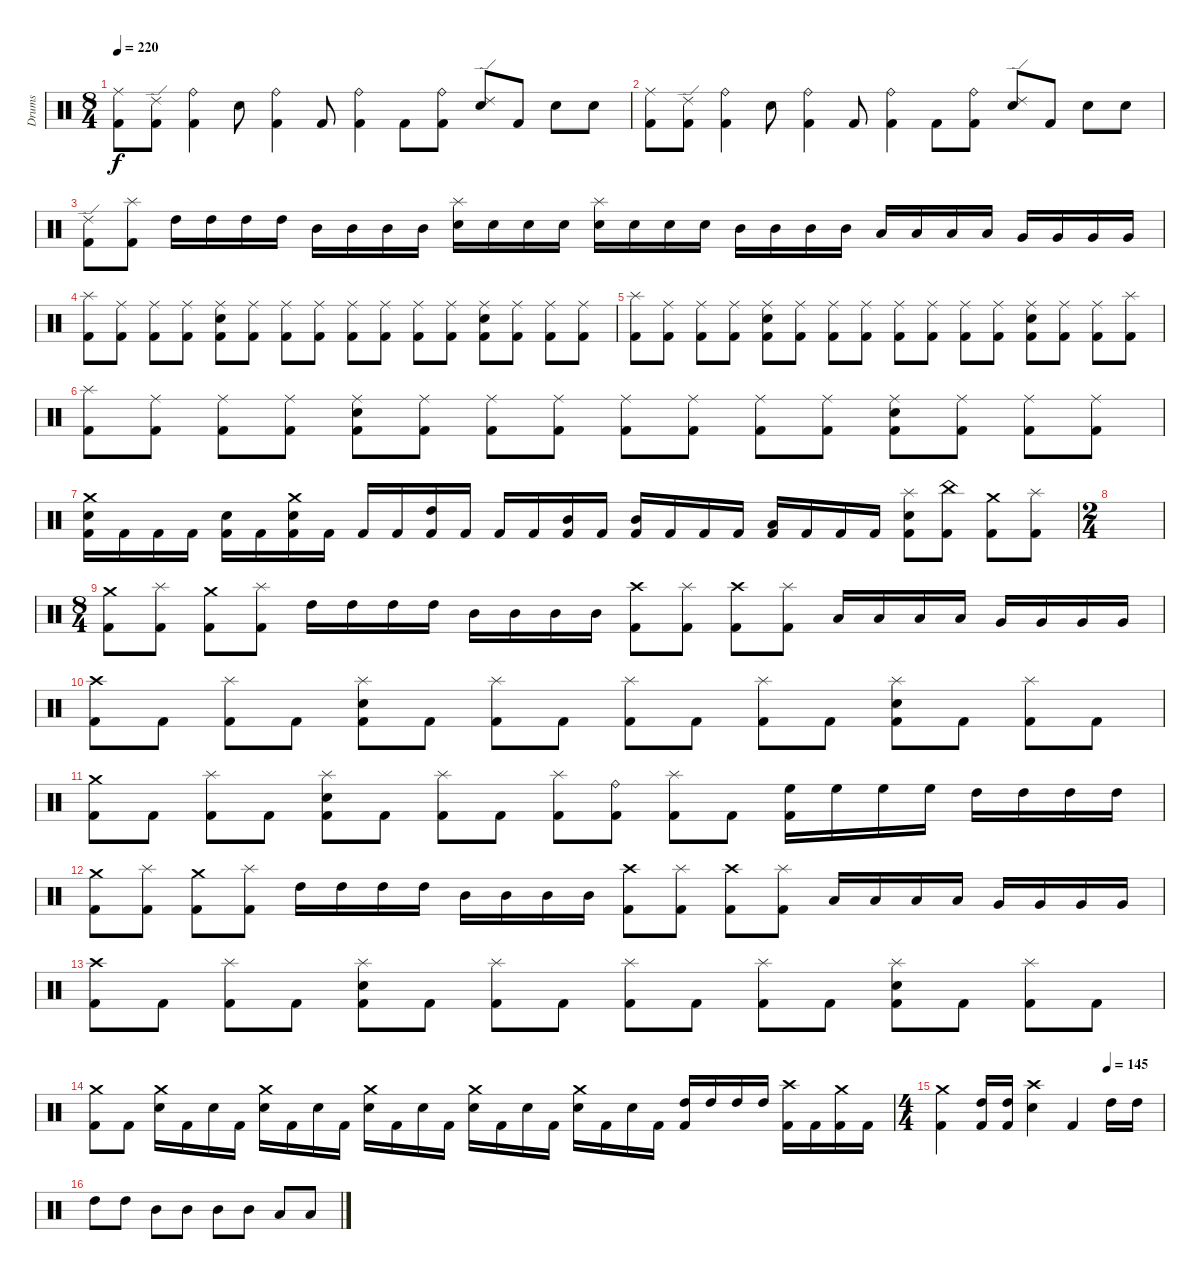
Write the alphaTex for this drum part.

\track ("Drums" "Drums") {instrument percussion}
\staff {score}
\articulation defaults
\ts (8 4)
\tempo 220
\clef neutral
\ks c
("Ride (middle)" "Kick (hit) 2").8{dy f} ("Ride (edge) 2" "Kick (hit) 2").8 ("Ride (bell)" "Kick (hit) 2").4 "Snare (hit) 2".8 ("Ride (bell)" "Kick (hit) 2").4 "Kick (hit) 2".8 ("Ride (bell)" "Kick (hit) 2").4 "Kick (hit) 2".8 ("Ride (bell)" "Kick (hit) 2").8 ("Ride (edge) 2" "Snare (hit) 2").8 "Kick (hit) 2".8 "Snare (hit) 2".8 "Snare (hit) 2".8 |
("Ride (middle)" "Kick (hit) 2").8 ("Ride (edge) 2" "Kick (hit) 2").8 ("Ride (bell)" "Kick (hit) 2").4 "Snare (hit) 2".8 ("Ride (bell)" "Kick (hit) 2").4 "Kick (hit) 2".8 ("Ride (bell)" "Kick (hit) 2").4 "Kick (hit) 2".8 ("Ride (bell)" "Kick (hit) 2").8 ("Ride (edge) 2" "Snare (hit) 2").8 "Kick (hit) 2".8 "Snare (hit) 2".8 "Snare (hit) 2".8 |
("Ride (edge) 2" "Kick (hit) 2").8 ("Splash (hit)" "Kick (hit) 2").8 "High Tom (hit)".16 "High Tom (hit)".16 "High Tom (hit)".16 "High Tom (hit)".16 "Mid Tom (hit)".16 "Mid Tom (hit)".16 "Mid Tom (hit)".16 "Mid Tom (hit)".16 ("Splash (hit)" "Snare (hit) 2").16 "Snare (hit) 2".16 "Snare (hit) 2".16 "Snare (hit) 2".16 ("Splash (hit)" "Snare (hit) 2").16 "Snare (hit) 2".16 "Snare (hit) 2".16 "Snare (hit) 2".16 "Mid Tom (hit)".16 "Mid Tom (hit)".16 "Mid Tom (hit)".16 "Mid Tom (hit)".16 "Low Tom (hit)".16 "Low Tom (hit)".16 "Low Tom (hit)".16 "Low Tom (hit)".16 "Very Low Tom (hit)".16 "Very Low Tom (hit)".16 "Very Low Tom (hit)".16 "Very Low Tom (hit)".16 |
("Splash (hit)" "Kick (hit) 2").8 ("Ride (middle)" "Kick (hit) 2").8 ("Ride (middle)" "Kick (hit) 2").8 ("Ride (middle)" "Kick (hit) 2").8 ("Ride (middle)" "Snare (hit) 2" "Kick (hit) 2").8 ("Ride (middle)" "Kick (hit) 2").8 ("Ride (middle)" "Kick (hit) 2").8 ("Ride (middle)" "Kick (hit) 2").8 ("Ride (middle)" "Kick (hit) 2").8 ("Ride (middle)" "Kick (hit) 2").8 ("Ride (middle)" "Kick (hit) 2").8 ("Ride (middle)" "Kick (hit) 2").8 ("Ride (middle)" "Snare (hit) 2" "Kick (hit) 2").8 ("Ride (middle)" "Kick (hit) 2").8 ("Ride (middle)" "Kick (hit) 2").8 ("Ride (middle)" "Kick (hit) 2").8 |
("Splash (hit)" "Kick (hit) 2").8 ("Ride (middle)" "Kick (hit) 2").8 ("Ride (middle)" "Kick (hit) 2").8 ("Ride (middle)" "Kick (hit) 2").8 ("Ride (middle)" "Snare (hit) 2" "Kick (hit) 2").8 ("Ride (middle)" "Kick (hit) 2").8 ("Ride (middle)" "Kick (hit) 2").8 ("Ride (middle)" "Kick (hit) 2").8 ("Ride (middle)" "Kick (hit) 2").8 ("Ride (middle)" "Kick (hit) 2").8 ("Ride (middle)" "Kick (hit) 2").8 ("Ride (middle)" "Kick (hit) 2").8 ("Ride (middle)" "Snare (hit) 2" "Kick (hit) 2").8 ("Ride (middle)" "Kick (hit) 2").8 ("Ride (middle)" "Kick (hit) 2").8 ("Splash (hit)" "Kick (hit) 2").8 |
("Splash (hit)" "Kick (hit) 2").8 ("Ride (middle)" "Kick (hit) 2").8 ("Ride (middle)" "Kick (hit) 2").8 ("Ride (middle)" "Kick (hit) 2").8 ("Ride (middle)" "Snare (hit) 2" "Kick (hit) 2").8 ("Ride (middle)" "Kick (hit) 2").8 ("Ride (middle)" "Kick (hit) 2").8 ("Ride (middle)" "Kick (hit) 2").8 ("Ride (middle)" "Kick (hit) 2").8 ("Ride (middle)" "Kick (hit) 2").8 ("Ride (middle)" "Kick (hit) 2").8 ("Ride (middle)" "Kick (hit) 2").8 ("Ride (middle)" "Snare (hit) 2" "Kick (hit) 2").8 ("Ride (middle)" "Kick (hit) 2").8 ("Ride (middle)" "Kick (hit) 2").8 ("Ride (middle)" "Kick (hit) 2").8 |
("Crash medium (hit)" "Snare (hit) 2" "Kick (hit) 2").16 "Kick (hit) 2".16 "Kick (hit) 2".16 "Kick (hit) 2".16 ("Snare (hit) 2" "Kick (hit) 2").16 "Kick (hit) 2".16 ("Crash medium (hit)" "Snare (hit) 2" "Kick (hit) 2").16 "Kick (hit) 2".16 "Kick (hit) 2".16 "Kick (hit) 2".16 ("High Tom (hit)" "Kick (hit) 2").16 "Kick (hit) 2".16 "Kick (hit) 2".16 "Kick (hit) 2".16 ("Mid Tom (hit)" "Kick (hit) 2").16 "Kick (hit) 2".16 ("Mid Tom (hit)" "Kick (hit) 2").16 "Kick (hit) 2".16 "Kick (hit) 2".16 "Kick (hit) 2".16 ("Low Tom (hit)" "Kick (hit) 2").16 "Kick (hit) 2".16 "Kick (hit) 2".16 "Kick (hit) 2".16 ("Splash (hit)" "Snare (hit) 2" "Kick (hit) 2").8 ("China (hit)" "Kick (hit) 2").8 ("Crash medium (hit)" "Kick (hit) 2").8 ("Splash (hit)" "Kick (hit) 2").8 |
\ts (2 4)
|
\ts (8 4)
("Crash medium (hit)" "Kick (hit) 2").8 ("Splash (hit)" "Kick (hit) 2").8 ("Crash medium (hit)" "Kick (hit) 2").8 ("Splash (hit)" "Kick (hit) 2").8 "High Tom (hit)".16 "High Tom (hit)".16 "High Tom (hit)".16 "High Tom (hit)".16 "Mid Tom (hit)".16 "Mid Tom (hit)".16 "Mid Tom (hit)".16 "Mid Tom (hit)".16 ("Crash high (hit)" "Kick (hit) 2").8 ("Splash (hit)" "Kick (hit) 2").8 ("Crash high (hit)" "Kick (hit) 2").8 ("Splash (hit)" "Kick (hit) 2").8 "Low Tom (hit)".16 "Low Tom (hit)".16 "Low Tom (hit)".16 "Low Tom (hit)".16 "Very Low Tom (hit)".16 "Very Low Tom (hit)".16 "Very Low Tom (hit)".16 "Very Low Tom (hit)".16 |
("Crash high (hit)" "Kick (hit) 2").8 "Kick (hit) 2".8 ("Splash (hit)" "Kick (hit) 2").8 "Kick (hit) 2".8 ("Splash (hit)" "Snare (hit) 2" "Kick (hit) 2").8 "Kick (hit) 2".8 ("Splash (hit)" "Kick (hit) 2").8 "Kick (hit) 2".8 ("Splash (hit)" "Kick (hit) 2").8 "Kick (hit) 2".8 ("Splash (hit)" "Kick (hit) 2").8 "Kick (hit) 2".8 ("Splash (hit)" "Snare (hit) 2" "Kick (hit) 2").8 "Kick (hit) 2".8 ("Splash (hit)" "Kick (hit) 2").8 "Kick (hit) 2".8 |
("Crash medium (hit)" "Kick (hit) 2").8 "Kick (hit) 2".8 ("Splash (hit)" "Kick (hit) 2").8 "Kick (hit) 2".8 ("Splash (hit)" "Snare (hit) 2" "Kick (hit) 2").8 "Kick (hit) 2".8 ("Splash (hit)" "Kick (hit) 2").8 "Kick (hit) 2".8 ("Splash (hit)" "Kick (hit) 2").8 ("Ride (bell)" "Kick (hit) 2").8 ("Splash (hit)" "Kick (hit) 2").8 "Kick (hit) 2".8 ("High Floor Tom (hit)" "Kick (hit) 2").16 "High Floor Tom (hit)".16 "High Floor Tom (hit)".16 "High Floor Tom (hit)".16 "High Tom (hit)".16 "High Tom (hit)".16 "High Tom (hit)".16 "High Tom (hit)".16 |
("Crash medium (hit)" "Kick (hit) 2").8 ("Splash (hit)" "Kick (hit) 2").8 ("Crash medium (hit)" "Kick (hit) 2").8 ("Splash (hit)" "Kick (hit) 2").8 "High Tom (hit)".16 "High Tom (hit)".16 "High Tom (hit)".16 "High Tom (hit)".16 "Mid Tom (hit)".16 "Mid Tom (hit)".16 "Mid Tom (hit)".16 "Mid Tom (hit)".16 ("Crash high (hit)" "Kick (hit) 2").8 ("Splash (hit)" "Kick (hit) 2").8 ("Crash high (hit)" "Kick (hit) 2").8 ("Splash (hit)" "Kick (hit) 2").8 "Low Tom (hit)".16 "Low Tom (hit)".16 "Low Tom (hit)".16 "Low Tom (hit)".16 "Very Low Tom (hit)".16 "Very Low Tom (hit)".16 "Very Low Tom (hit)".16 "Very Low Tom (hit)".16 |
("Crash high (hit)" "Kick (hit) 2").8 "Kick (hit) 2".8 ("Splash (hit)" "Kick (hit) 2").8 "Kick (hit) 2".8 ("Splash (hit)" "Snare (hit) 2" "Kick (hit) 2").8 "Kick (hit) 2".8 ("Splash (hit)" "Kick (hit) 2").8 "Kick (hit) 2".8 ("Splash (hit)" "Kick (hit) 2").8 "Kick (hit) 2".8 ("Splash (hit)" "Kick (hit) 2").8 "Kick (hit) 2".8 ("Splash (hit)" "Snare (hit) 2" "Kick (hit) 2").8 "Kick (hit) 2".8 ("Splash (hit)" "Kick (hit) 2").8 "Kick (hit) 2".8 |
("Crash medium (hit)" "Kick (hit) 2").8 "Kick (hit) 2".8 ("Crash medium (hit)" "Snare (hit) 2").16 "Kick (hit) 2".16 "Snare (hit) 2".16 "Kick (hit) 2".16 ("Crash medium (hit)" "Snare (hit) 2").16 "Kick (hit) 2".16 "Snare (hit) 2".16 "Kick (hit) 2".16 ("Crash medium (hit)" "Snare (hit) 2").16 "Kick (hit) 2".16 "Snare (hit) 2".16 "Kick (hit) 2".16 ("Crash medium (hit)" "Snare (hit) 2").16 "Kick (hit) 2".16 "Snare (hit) 2".16 "Kick (hit) 2".16 ("Crash medium (hit)" "Snare (hit) 2").16 "Kick (hit) 2".16 "Snare (hit) 2".16 "Kick (hit) 2".16 ("High Tom (hit)" "Kick (hit) 2").16 "High Tom (hit)".16 "High Tom (hit)".16 "High Tom (hit)".16 ("Crash high (hit)" "Kick (hit) 2").16 "Kick (hit) 2".16 ("Crash medium (hit)" "Kick (hit) 2").16 "Kick (hit) 2".16 |
\ts (4 4)
\tempo (145 0.75)
("Crash medium (hit)" "Kick (hit) 2").4 ("High Tom (hit)" "Kick (hit) 2").16 ("High Tom (hit)" "Kick (hit) 2").16 ("Crash high (hit)" "Snare (hit) 2").4 "Kick (hit) 2".4 "High Tom (hit)".16 "High Tom (hit)".16 |
"High Tom (hit)".8 "High Tom (hit)".8 "Mid Tom (hit)".8 "Mid Tom (hit)".8 "Mid Tom (hit)".8 "Mid Tom (hit)".8 "Low Tom (hit)".8 "Low Tom (hit)".8
